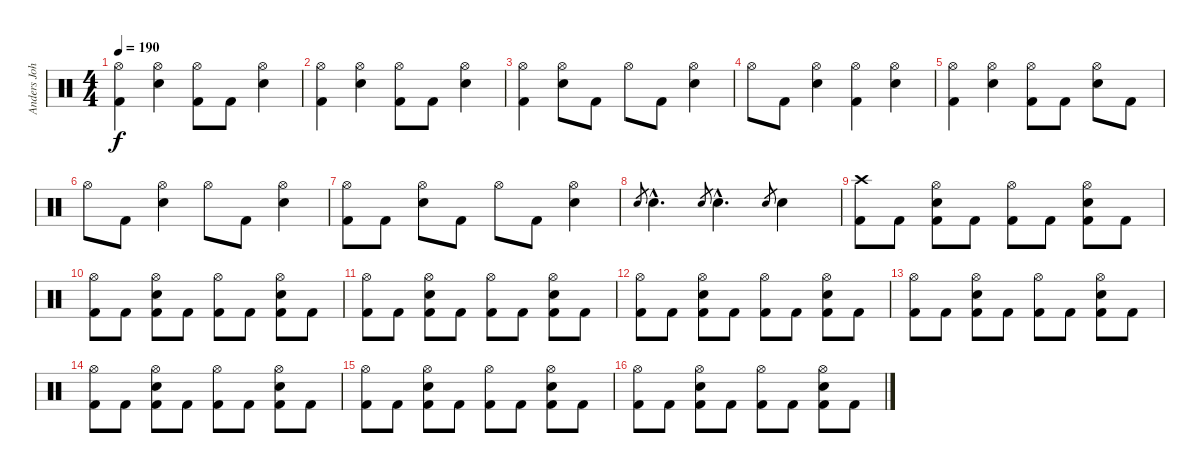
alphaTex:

\track ("Anders Johansson Drums" "Anders Joh") {instrument percussion}
\staff {score}
\articulation defaults
\ts (4 4)
\tempo 190
\clef neutral
\ks c
("Hi-Hat (open)" "Kick (hit) 2").4{dy f} ("Hi-Hat (open)" "Snare (hit) 2").4 ("Hi-Hat (open)" "Kick (hit) 2").8 "Kick (hit) 2".8 ("Hi-Hat (open)" "Snare (hit) 2").4 |
("Hi-Hat (open)" "Kick (hit) 2").4 ("Hi-Hat (open)" "Snare (hit) 2").4 ("Hi-Hat (open)" "Kick (hit) 2").8 "Kick (hit) 2".8 ("Hi-Hat (open)" "Snare (hit) 2").4 |
("Hi-Hat (open)" "Kick (hit) 2").4 ("Hi-Hat (open)" "Snare (hit) 2").8 "Kick (hit) 2".8 "Hi-Hat (open)".8 "Kick (hit) 2".8 ("Hi-Hat (open)" "Snare (hit) 2").4 |
"Hi-Hat (open)".8 "Kick (hit) 2".8 ("Hi-Hat (open)" "Snare (hit) 2").4 ("Hi-Hat (open)" "Kick (hit) 2").4 ("Hi-Hat (open)" "Snare (hit) 2").4 |
("Hi-Hat (open)" "Kick (hit) 2").4 ("Hi-Hat (open)" "Snare (hit) 2").4 ("Hi-Hat (open)" "Kick (hit) 2").8 "Kick (hit) 2".8 ("Hi-Hat (open)" "Snare (hit) 2").8 "Kick (hit) 2".8 |
"Hi-Hat (open)".8 "Kick (hit) 2".8 ("Hi-Hat (open)" "Snare (hit) 2").4 "Hi-Hat (open)".8 "Kick (hit) 2".8 ("Hi-Hat (open)" "Snare (hit) 2").4 |
("Hi-Hat (open)" "Kick (hit) 2").8 "Kick (hit) 2".8 ("Hi-Hat (open)" "Snare (hit) 2").8 "Kick (hit) 2".8 "Hi-Hat (open)".8 "Kick (hit) 2".8 ("Hi-Hat (open)" "Snare (hit) 2").4 |
"Snare (hit) 2".8{gr} "Snare (hit) 2"{hac}.4{d} "Snare (hit) 2".8{gr} "Snare (hit) 2"{hac}.4{d} "Snare (hit) 2".8{gr} "Snare (hit) 2".4 |
("Crash high (hit)" "Kick (hit) 2").8 "Kick (hit) 2".8 ("Hi-Hat (open)" "Snare (hit) 2" "Kick (hit) 2").8 "Kick (hit) 2".8 ("Hi-Hat (open)" "Kick (hit) 2").8 "Kick (hit) 2".8 ("Hi-Hat (open)" "Snare (hit) 2" "Kick (hit) 2").8 "Kick (hit) 2".8 |
("Hi-Hat (open)" "Kick (hit) 2").8 "Kick (hit) 2".8 ("Hi-Hat (open)" "Snare (hit) 2" "Kick (hit) 2").8 "Kick (hit) 2".8 ("Hi-Hat (open)" "Kick (hit) 2").8 "Kick (hit) 2".8 ("Hi-Hat (open)" "Snare (hit) 2" "Kick (hit) 2").8 "Kick (hit) 2".8 |
("Hi-Hat (open)" "Kick (hit) 2").8 "Kick (hit) 2".8 ("Hi-Hat (open)" "Snare (hit) 2" "Kick (hit) 2").8 "Kick (hit) 2".8 ("Hi-Hat (open)" "Kick (hit) 2").8 "Kick (hit) 2".8 ("Hi-Hat (open)" "Snare (hit) 2" "Kick (hit) 2").8 "Kick (hit) 2".8 |
("Hi-Hat (open)" "Kick (hit) 2").8 "Kick (hit) 2".8 ("Hi-Hat (open)" "Snare (hit) 2" "Kick (hit) 2").8 "Kick (hit) 2".8 ("Hi-Hat (open)" "Kick (hit) 2").8 "Kick (hit) 2".8 ("Hi-Hat (open)" "Snare (hit) 2" "Kick (hit) 2").8 "Kick (hit) 2".8 |
("Hi-Hat (open)" "Kick (hit) 2").8 "Kick (hit) 2".8 ("Hi-Hat (open)" "Snare (hit) 2" "Kick (hit) 2").8 "Kick (hit) 2".8 ("Hi-Hat (open)" "Kick (hit) 2").8 "Kick (hit) 2".8 ("Hi-Hat (open)" "Snare (hit) 2" "Kick (hit) 2").8 "Kick (hit) 2".8 |
("Hi-Hat (open)" "Kick (hit) 2").8 "Kick (hit) 2".8 ("Hi-Hat (open)" "Snare (hit) 2" "Kick (hit) 2").8 "Kick (hit) 2".8 ("Hi-Hat (open)" "Kick (hit) 2").8 "Kick (hit) 2".8 ("Hi-Hat (open)" "Snare (hit) 2" "Kick (hit) 2").8 "Kick (hit) 2".8 |
("Hi-Hat (open)" "Kick (hit) 2").8 "Kick (hit) 2".8 ("Hi-Hat (open)" "Snare (hit) 2" "Kick (hit) 2").8 "Kick (hit) 2".8 ("Hi-Hat (open)" "Kick (hit) 2").8 "Kick (hit) 2".8 ("Hi-Hat (open)" "Snare (hit) 2" "Kick (hit) 2").8 "Kick (hit) 2".8 |
("Hi-Hat (open)" "Kick (hit) 2").8 "Kick (hit) 2".8 ("Hi-Hat (open)" "Snare (hit) 2" "Kick (hit) 2").8 "Kick (hit) 2".8 ("Hi-Hat (open)" "Kick (hit) 2").8 "Kick (hit) 2".8 ("Hi-Hat (open)" "Snare (hit) 2" "Kick (hit) 2").8 "Kick (hit) 2".8
